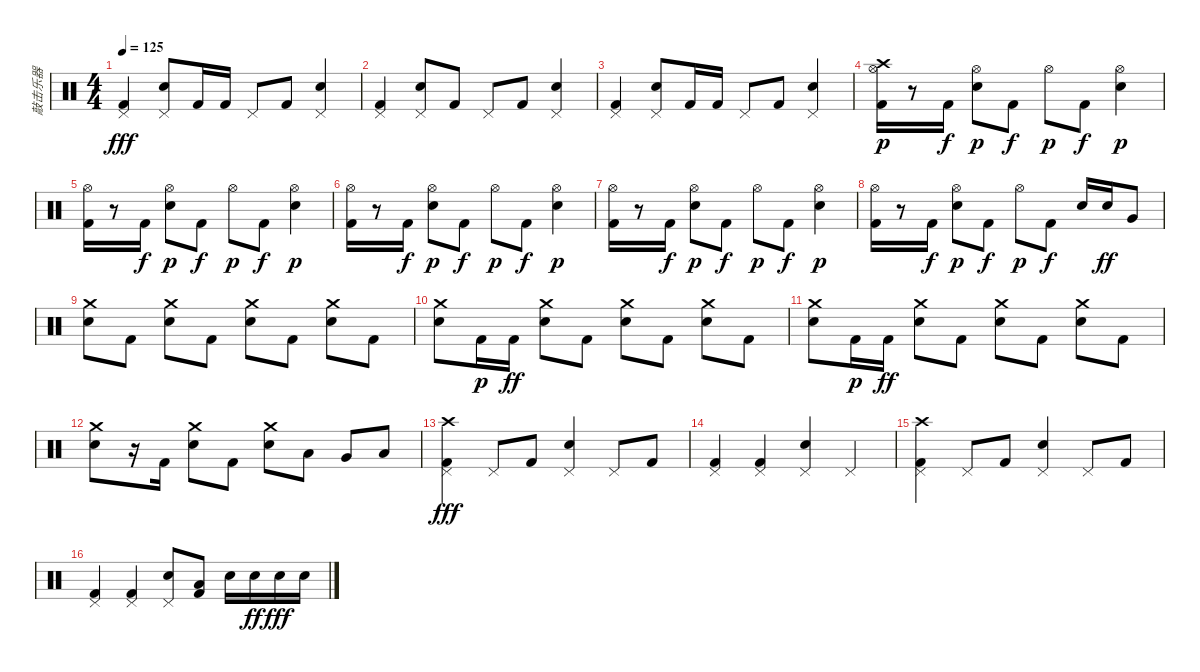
\track ("敲击乐器" "敲击乐器") {instrument percussion}
\staff {score}
\articulation defaults
\ts (4 4)
\tempo 125
\clef neutral
\ks c
("Pedal Hi-Hat (hit)" "Kick (hit) 2").4{dy fff} ("Pedal Hi-Hat (hit)" "Snare (hit) 2").8 "Kick (hit) 2".16 "Kick (hit) 2".16 "Pedal Hi-Hat (hit)".8 "Kick (hit) 2".8 ("Pedal Hi-Hat (hit)" "Snare (hit) 2").4 |
("Pedal Hi-Hat (hit)" "Kick (hit) 2").4 ("Pedal Hi-Hat (hit)" "Snare (hit) 2").8 "Kick (hit) 2".8 "Pedal Hi-Hat (hit)".8 "Kick (hit) 2".8 ("Pedal Hi-Hat (hit)" "Snare (hit) 2").4 |
("Pedal Hi-Hat (hit)" "Kick (hit) 2").4 ("Pedal Hi-Hat (hit)" "Snare (hit) 2").8 "Kick (hit) 2".16 "Kick (hit) 2".16 "Pedal Hi-Hat (hit)".8 "Kick (hit) 2".8 ("Pedal Hi-Hat (hit)" "Snare (hit) 2").4 |
("Crash high (hit)" "Hi-Hat (open)" "Kick (hit) 2").16{dy p} r.8 "Kick (hit) 2".16{dy f} ("Hi-Hat (open)" "Snare (hit) 2").8{dy p} "Kick (hit) 2".8{dy f} "Hi-Hat (open)".8{dy p} "Kick (hit) 2".8{dy f} ("Hi-Hat (open)" "Snare (hit) 2").4{dy p} |
("Hi-Hat (open)" "Kick (hit) 2").16 r.8 "Kick (hit) 2".16{dy f} ("Hi-Hat (open)" "Snare (hit) 2").8{dy p} "Kick (hit) 2".8{dy f} "Hi-Hat (open)".8{dy p} "Kick (hit) 2".8{dy f} ("Hi-Hat (open)" "Snare (hit) 2").4{dy p} |
("Hi-Hat (open)" "Kick (hit) 2").16 r.8 "Kick (hit) 2".16{dy f} ("Hi-Hat (open)" "Snare (hit) 2").8{dy p} "Kick (hit) 2".8{dy f} "Hi-Hat (open)".8{dy p} "Kick (hit) 2".8{dy f} ("Hi-Hat (open)" "Snare (hit) 2").4{dy p} |
("Hi-Hat (open)" "Kick (hit) 2").16 r.8 "Kick (hit) 2".16{dy f} ("Hi-Hat (open)" "Snare (hit) 2").8{dy p} "Kick (hit) 2".8{dy f} "Hi-Hat (open)".8{dy p} "Kick (hit) 2".8{dy f} ("Hi-Hat (open)" "Snare (hit) 2").4{dy p} |
("Hi-Hat (open)" "Kick (hit) 2").16 r.8 "Kick (hit) 2".16{dy f} ("Hi-Hat (open)" "Snare (hit) 2").8{dy p} "Kick (hit) 2".8{dy f} "Hi-Hat (open)".8{dy p} "Kick (hit) 2".8{dy f} "Snare (hit) 2".16 "Snare (hit) 2".16{dy ff} "Very Low Tom (hit)".8 |
("Crash medium (hit)" "Snare (hit) 2").8 "Kick (hit) 2".8 ("Crash medium (hit)" "Snare (hit) 2").8 "Kick (hit) 2".8 ("Crash medium (hit)" "Snare (hit) 2").8 "Kick (hit) 2".8 ("Crash medium (hit)" "Snare (hit) 2").8 "Kick (hit) 2".8 |
("Crash medium (hit)" "Snare (hit) 2").8 "Kick (hit) 2".16{dy p} "Kick (hit) 2".16{dy ff} ("Crash medium (hit)" "Snare (hit) 2").8 "Kick (hit) 2".8 ("Crash medium (hit)" "Snare (hit) 2").8 "Kick (hit) 2".8 ("Crash medium (hit)" "Snare (hit) 2").8 "Kick (hit) 2".8 |
("Crash medium (hit)" "Snare (hit) 2").8 "Kick (hit) 2".16{dy p} "Kick (hit) 2".16{dy ff} ("Crash medium (hit)" "Snare (hit) 2").8 "Kick (hit) 2".8 ("Crash medium (hit)" "Snare (hit) 2").8 "Kick (hit) 2".8 ("Crash medium (hit)" "Snare (hit) 2").8 "Kick (hit) 2".8 |
("Crash medium (hit)" "Snare (hit) 2").8 r.16 "Kick (hit) 2".16 ("Crash medium (hit)" "Snare (hit) 2").8 "Kick (hit) 2".8 ("Crash medium (hit)" "Snare (hit) 2").8 "Low Tom (hit)".8 "Very Low Tom (hit)".8 "Low Floor Tom (hit)".8 |
("Crash high (hit)" "Pedal Hi-Hat (hit)" "Kick (hit) 2").4{dy fff} "Pedal Hi-Hat (hit)".8 "Kick (hit) 2".8 ("Pedal Hi-Hat (hit)" "Snare (hit) 2").4 "Pedal Hi-Hat (hit)".8 "Kick (hit) 2".8 |
("Pedal Hi-Hat (hit)" "Kick (hit) 2").4 ("Pedal Hi-Hat (hit)" "Kick (hit) 2").4 ("Pedal Hi-Hat (hit)" "Snare (hit) 2").4 "Pedal Hi-Hat (hit)".4 |
("Crash high (hit)" "Pedal Hi-Hat (hit)" "Kick (hit) 2").4 "Pedal Hi-Hat (hit)".8 "Kick (hit) 2".8 ("Pedal Hi-Hat (hit)" "Snare (hit) 2").4 "Pedal Hi-Hat (hit)".8 "Kick (hit) 2".8 |
("Pedal Hi-Hat (hit)" "Kick (hit) 2").4 ("Pedal Hi-Hat (hit)" "Kick (hit) 2").4 ("Pedal Hi-Hat (hit)" "Snare (hit) 2").8 ("Low Tom (hit)" "Kick (hit) 2").8 "Snare (hit) 2".16 "Snare (hit) 2".16{dy ff} "Snare (hit) 2".16{dy fff} "Snare (hit) 2".16
